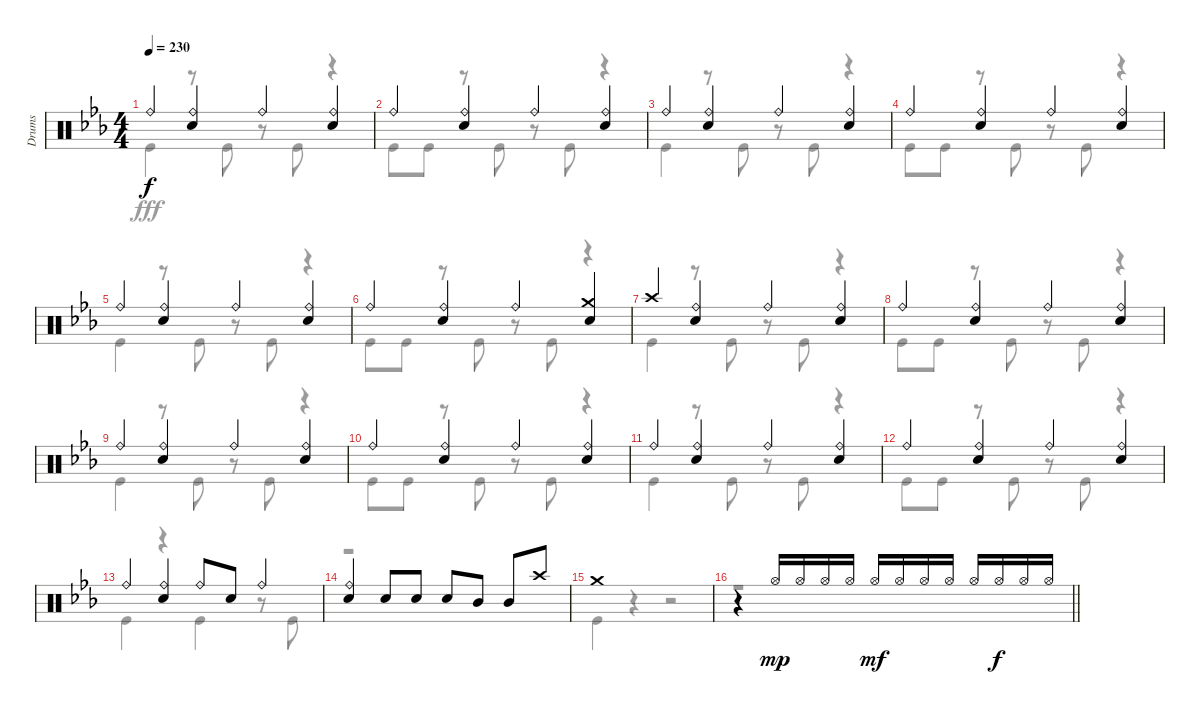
\track ("Drums" "Drums") {instrument percussion}
\staff {score}
\articulation defaults
\voice
\ts (4 4)
\tempo 230
\clef neutral
\ks eb "Ride (bell)".4{dy f}
("Ride (bell)" "Snare (hit) 2").4 "Ride (bell)".4 ("Ride (bell)" "Snare (hit) 2").4 |
"Ride (bell)".4 ("Ride (bell)" "Snare (hit) 2").4 "Ride (bell)".4 ("Ride (bell)" "Snare (hit) 2").4 |
"Ride (bell)".4 ("Ride (bell)" "Snare (hit) 2").4 "Ride (bell)".4 ("Ride (bell)" "Snare (hit) 2").4 |
"Ride (bell)".4 ("Ride (bell)" "Snare (hit) 2").4 "Ride (bell)".4 ("Ride (bell)" "Snare (hit) 2").4 |
"Ride (bell)".4 ("Ride (bell)" "Snare (hit) 2").4 "Ride (bell)".4 ("Ride (bell)" "Snare (hit) 2").4 |
"Ride (bell)".4 ("Ride (bell)" "Snare (hit) 2").4 "Ride (bell)".4 ("Crash medium (hit)" "Snare (hit) 2").4 |
"Crash high (hit)".4 ("Ride (bell)" "Snare (hit) 2").4 "Ride (bell)".4 ("Ride (bell)" "Snare (hit) 2").4 |
"Ride (bell)".4 ("Ride (bell)" "Snare (hit) 2").4 "Ride (bell)".4 ("Ride (bell)" "Snare (hit) 2").4 |
"Ride (bell)".4 ("Ride (bell)" "Snare (hit) 2").4 "Ride (bell)".4 ("Ride (bell)" "Snare (hit) 2").4 |
"Ride (bell)".4 ("Ride (bell)" "Snare (hit) 2").4 "Ride (bell)".4 ("Ride (bell)" "Snare (hit) 2").4 |
"Ride (bell)".4 ("Ride (bell)" "Snare (hit) 2").4 "Ride (bell)".4 ("Ride (bell)" "Snare (hit) 2").4 |
"Ride (bell)".4 ("Ride (bell)" "Snare (hit) 2").4 "Ride (bell)".4 ("Ride (bell)" "Snare (hit) 2").4 |
"Ride (bell)".4 ("Ride (bell)" "Snare (hit) 2").4 "Ride (bell)".8 "Snare (hit) 2".8 "Ride (bell)".4 |
("Ride (bell)" "Snare (hit) 2").4 "Snare (hit) 2".8 "Snare (hit) 2".8 "Snare (hit) 2".8 "Mid Tom (hit)".8 "Mid Tom (hit)".8 "Crash high (hit)".8 |
"Crash medium (hit)".1 |
\barLineRight lightlight
r.4 "Hi-Hat (open)".16{dy mp} "Hi-Hat (open)".16 "Hi-Hat (open)".16 "Hi-Hat (open)".16 "Hi-Hat (open)".16{dy mf} "Hi-Hat (open)".16 "Hi-Hat (open)".16 "Hi-Hat (open)".16 "Hi-Hat (open)".16 "Hi-Hat (open)".16{dy f} "Hi-Hat (open)".16 "Hi-Hat (open)".16
\voice
\clef neutral
\ottava regular
\simile none
\ks eb "Kick (hit)".4{dy fff}
r.8 "Kick (hit)".8 r.8 "Kick (hit)".8 r.4 |
"Kick (hit)".8 "Kick (hit)".8 r.8 "Kick (hit)".8 r.8 "Kick (hit)".8 r.4 |
"Kick (hit)".4 r.8 "Kick (hit)".8 r.8 "Kick (hit)".8 r.4 |
"Kick (hit)".8 "Kick (hit)".8 r.8 "Kick (hit)".8 r.8 "Kick (hit)".8 r.4 |
"Kick (hit)".4 r.8 "Kick (hit)".8 r.8 "Kick (hit)".8 r.4 |
"Kick (hit)".8 "Kick (hit)".8 r.8 "Kick (hit)".8 r.8 "Kick (hit)".8 r.4 |
"Kick (hit)".4 r.8 "Kick (hit)".8 r.8 "Kick (hit)".8 r.4 |
"Kick (hit)".8 "Kick (hit)".8 r.8 "Kick (hit)".8 r.8 "Kick (hit)".8 r.4 |
"Kick (hit)".4 r.8 "Kick (hit)".8 r.8 "Kick (hit)".8 r.4 |
"Kick (hit)".8 "Kick (hit)".8 r.8 "Kick (hit)".8 r.8 "Kick (hit)".8 r.4 |
"Kick (hit)".4 r.8 "Kick (hit)".8 r.8 "Kick (hit)".8 r.4 |
"Kick (hit)".8 "Kick (hit)".8 r.8 "Kick (hit)".8 r.8 "Kick (hit)".8 r.4 |
"Kick (hit)".4 r.4 "Kick (hit)".4 r.8 "Kick (hit)".8 |
r.1 |
"Kick (hit)".4 r.4 r.2 |
\barLineRight lightlight
r.1
